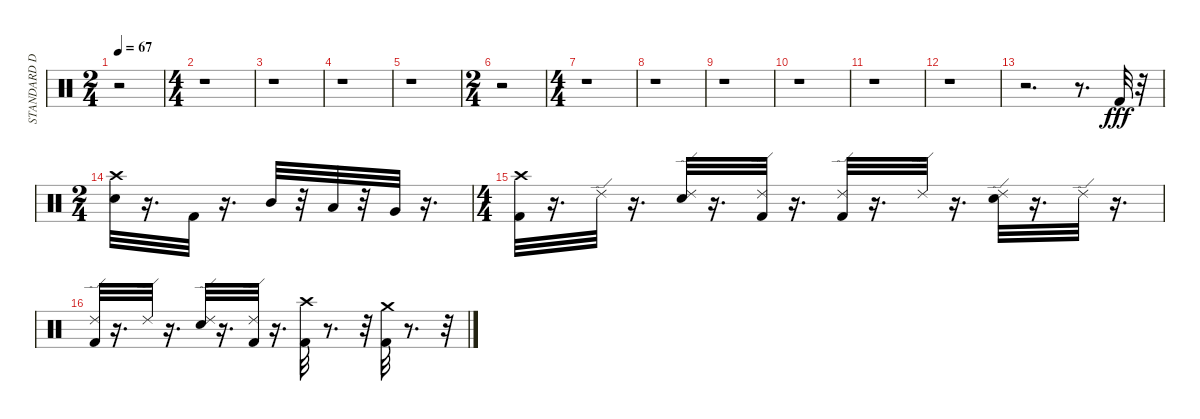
\track ("STANDARD DRUM" "STANDARD D") {instrument percussion}
\staff {score}
\articulation defaults
\ts (2 4)
\tempo 67
\clef neutral
\ks c
r.2{dy fff} |
\ts (4 4)
r.1 |
r.1 |
r.1 |
r.1 |
\ts (2 4)
r.2 |
\ts (4 4)
r.1 |
r.1 |
r.1 |
r.1 |
r.1 |
r.1 |
r.2{d} r.8{d} "Kick (hit) 2".32 r.32 |
\ts (2 4)
("Crash high (hit)" "Snare (hit) 2").32 r.16{d} "Kick (hit) 2".32 r.16{d} "Mid Tom (hit)".32 r.32 "Low Tom (hit)".32 r.32 "Very Low Tom (hit)".32 r.16{d} |
\ts (4 4)
("Kick (hit) 2" "Crash high (hit)").32 r.16{d} "Ride (edge) 2".32 r.16{d} ("Ride (edge) 2" "Snare (hit) 2").32 r.16{d} ("Ride (edge) 2" "Kick (hit) 2").32 r.16{d} ("Ride (edge) 2" "Kick (hit) 2").32 r.16{d} "Ride (edge) 2".32 r.16{d} ("Ride (edge) 2" "Snare (hit) 2").32 r.16{d} "Ride (edge) 2".32 r.16{d} |
("Ride (edge) 2" "Kick (hit) 2").32 r.16{d} "Ride (edge) 2".32 r.16{d} ("Ride (edge) 2" "Snare (hit) 2").32 r.16{d} ("Ride (edge) 2" "Kick (hit) 2").32 r.16{d} ("Crash high (hit)" "Kick (hit) 2").32 r.8{d} r.32 ("Crash medium (hit)" "Kick (hit) 2").32 r.8{d} r.32
